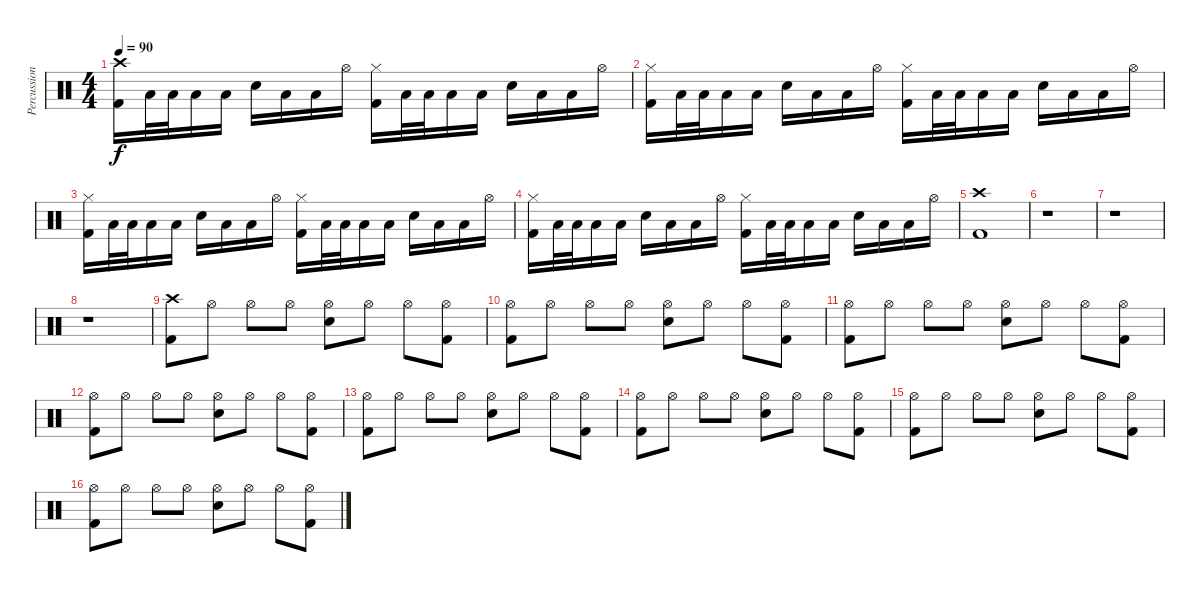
\track ("Percussion" "Percussion") {instrument percussion}
\staff {score}
\articulation defaults
\ts (4 4)
\tempo 90
\clef neutral
\ks c
("Crash high (hit)" "Kick (hit) 2").16{dy f} "Low Floor Tom (hit)".32 "Low Floor Tom (hit)".32 "Low Floor Tom (hit)".16 "Low Floor Tom (hit)".16 "Snare (hit) 2".16 "Low Floor Tom (hit)".16 "Low Floor Tom (hit)".16 "Hi-Hat (open)".16 ("Hi-Hat (closed)" "Kick (hit) 2").16 "Low Floor Tom (hit)".32 "Low Floor Tom (hit)".32 "Low Floor Tom (hit)".16 "Low Floor Tom (hit)".16 "Snare (hit) 2".16 "Low Floor Tom (hit)".16 "Low Floor Tom (hit)".16 "Hi-Hat (open)".16 |
("Hi-Hat (closed)" "Kick (hit) 2").16 "Low Floor Tom (hit)".32 "Low Floor Tom (hit)".32 "Low Floor Tom (hit)".16 "Low Floor Tom (hit)".16 "Snare (hit) 2".16 "Low Floor Tom (hit)".16 "Low Floor Tom (hit)".16 "Hi-Hat (open)".16 ("Hi-Hat (closed)" "Kick (hit) 2").16 "Low Floor Tom (hit)".32 "Low Floor Tom (hit)".32 "Low Floor Tom (hit)".16 "Low Floor Tom (hit)".16 "Snare (hit) 2".16 "Low Floor Tom (hit)".16 "Low Floor Tom (hit)".16 "Hi-Hat (open)".16 |
("Hi-Hat (closed)" "Kick (hit) 2").16 "Low Floor Tom (hit)".32 "Low Floor Tom (hit)".32 "Low Floor Tom (hit)".16 "Low Floor Tom (hit)".16 "Snare (hit) 2".16 "Low Floor Tom (hit)".16 "Low Floor Tom (hit)".16 "Hi-Hat (open)".16 ("Hi-Hat (closed)" "Kick (hit) 2").16 "Low Floor Tom (hit)".32 "Low Floor Tom (hit)".32 "Low Floor Tom (hit)".16 "Low Floor Tom (hit)".16 "Snare (hit) 2".16 "Low Floor Tom (hit)".16 "Low Floor Tom (hit)".16 "Hi-Hat (open)".16 |
("Hi-Hat (closed)" "Kick (hit) 2").16 "Low Floor Tom (hit)".32 "Low Floor Tom (hit)".32 "Low Floor Tom (hit)".16 "Low Floor Tom (hit)".16 "Snare (hit) 2".16 "Low Floor Tom (hit)".16 "Low Floor Tom (hit)".16 "Hi-Hat (open)".16 ("Hi-Hat (closed)" "Kick (hit) 2").16 "Low Floor Tom (hit)".32 "Low Floor Tom (hit)".32 "Low Floor Tom (hit)".16 "Low Floor Tom (hit)".16 "Snare (hit) 2".16 "Low Floor Tom (hit)".16 "Low Floor Tom (hit)".16 "Hi-Hat (open)".16 |
("Crash high (hit)" "Kick (hit) 2").1 |
r.1 |
r.1 |
r.1 |
("Crash high (hit)" "Kick (hit) 2").8 "Hi-Hat (open)".8 "Hi-Hat (open)".8 "Hi-Hat (open)".8 ("Hi-Hat (open)" "Snare (hit) 2").8 "Hi-Hat (open)".8 "Hi-Hat (open)".8 ("Hi-Hat (open)" "Kick (hit) 2").8 |
("Hi-Hat (open)" "Kick (hit) 2").8 "Hi-Hat (open)".8 "Hi-Hat (open)".8 "Hi-Hat (open)".8 ("Hi-Hat (open)" "Snare (hit) 2").8 "Hi-Hat (open)".8 "Hi-Hat (open)".8 ("Hi-Hat (open)" "Kick (hit) 2").8 |
("Hi-Hat (open)" "Kick (hit) 2").8 "Hi-Hat (open)".8 "Hi-Hat (open)".8 "Hi-Hat (open)".8 ("Hi-Hat (open)" "Snare (hit) 2").8 "Hi-Hat (open)".8 "Hi-Hat (open)".8 ("Hi-Hat (open)" "Kick (hit) 2").8 |
("Hi-Hat (open)" "Kick (hit) 2").8 "Hi-Hat (open)".8 "Hi-Hat (open)".8 "Hi-Hat (open)".8 ("Hi-Hat (open)" "Snare (hit) 2").8 "Hi-Hat (open)".8 "Hi-Hat (open)".8 ("Hi-Hat (open)" "Kick (hit) 2").8 |
("Hi-Hat (open)" "Kick (hit) 2").8 "Hi-Hat (open)".8 "Hi-Hat (open)".8 "Hi-Hat (open)".8 ("Hi-Hat (open)" "Snare (hit) 2").8 "Hi-Hat (open)".8 "Hi-Hat (open)".8 ("Hi-Hat (open)" "Kick (hit) 2").8 |
("Hi-Hat (open)" "Kick (hit) 2").8 "Hi-Hat (open)".8 "Hi-Hat (open)".8 "Hi-Hat (open)".8 ("Hi-Hat (open)" "Snare (hit) 2").8 "Hi-Hat (open)".8 "Hi-Hat (open)".8 ("Hi-Hat (open)" "Kick (hit) 2").8 |
("Hi-Hat (open)" "Kick (hit) 2").8 "Hi-Hat (open)".8 "Hi-Hat (open)".8 "Hi-Hat (open)".8 ("Hi-Hat (open)" "Snare (hit) 2").8 "Hi-Hat (open)".8 "Hi-Hat (open)".8 ("Hi-Hat (open)" "Kick (hit) 2").8 |
("Hi-Hat (open)" "Kick (hit) 2").8 "Hi-Hat (open)".8 "Hi-Hat (open)".8 "Hi-Hat (open)".8 ("Hi-Hat (open)" "Snare (hit) 2").8 "Hi-Hat (open)".8 "Hi-Hat (open)".8 ("Hi-Hat (open)" "Kick (hit) 2").8
